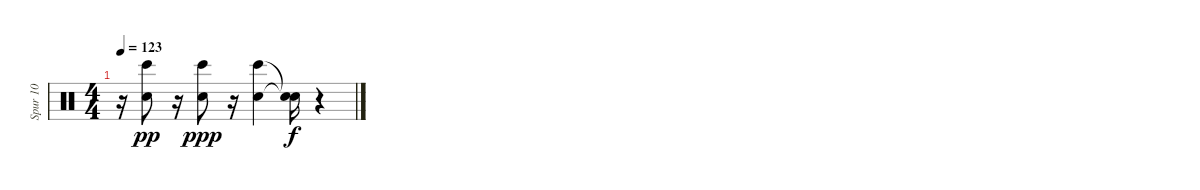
\track ("Spur 10" "Spur 10") {instrument percussion}
\staff {score}
\articulation defaults
\ts (4 4)
\tempo 123
\clef neutral
\ks c
r.16{dy p} ("Hand Clap (hit)" "Bongo High (hit)").8{dy pp} r.16 ("Hand Clap (hit)" "Bongo High (hit)").8{dy ppp} r.16 ("Hand Clap (hit)" "Bongo High (hit)").4 ("Snare (hit)"{t} "Snare (hit)"{t}).16{dy f} r.4
